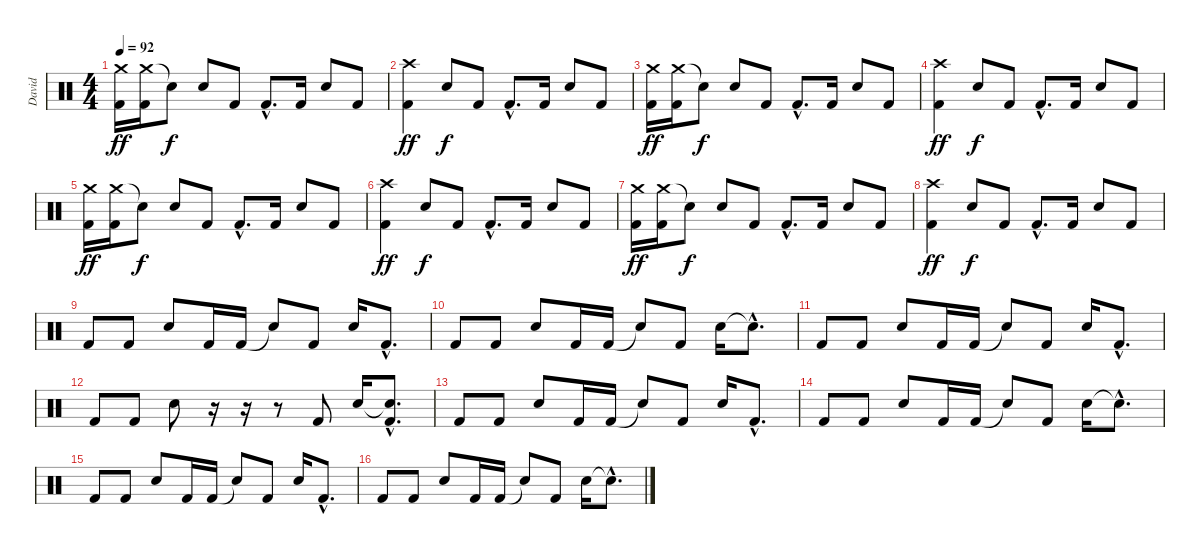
\track ("David" "David") {instrument percussion}
\staff {score}
\articulation defaults
\ts (4 4)
\tempo 92
\clef neutral
\ks c
("Crash medium (hit)" "Kick (hit) 2").16{dy ff} ("Crash medium (hit)" "Kick (hit) 2").16 "Snare (hit)"{t}.8{dy f} "Snare (hit) 2".8 "Kick (hit) 2".8 "Kick (hit) 2"{hac}.8{d} "Kick (hit) 2".16 "Snare (hit) 2".8 "Kick (hit) 2".8 |
("Crash high (hit)" "Kick (hit) 2").4{dy ff} "Snare (hit) 2".8{dy f} "Kick (hit) 2".8 "Kick (hit) 2"{hac}.8{d} "Kick (hit) 2".16 "Snare (hit) 2".8 "Kick (hit) 2".8 |
("Crash medium (hit)" "Kick (hit) 2").16{dy ff} ("Crash medium (hit)" "Kick (hit) 2").16 "Snare (hit)"{t}.8{dy f} "Snare (hit) 2".8 "Kick (hit) 2".8 "Kick (hit) 2"{hac}.8{d} "Kick (hit) 2".16 "Snare (hit) 2".8 "Kick (hit) 2".8 |
("Crash high (hit)" "Kick (hit) 2").4{dy ff} "Snare (hit) 2".8{dy f} "Kick (hit) 2".8 "Kick (hit) 2"{hac}.8{d} "Kick (hit) 2".16 "Snare (hit) 2".8 "Kick (hit) 2".8 |
("Crash medium (hit)" "Kick (hit) 2").16{dy ff} ("Crash medium (hit)" "Kick (hit) 2").16 "Snare (hit)"{t}.8{dy f} "Snare (hit) 2".8 "Kick (hit) 2".8 "Kick (hit) 2"{hac}.8{d} "Kick (hit) 2".16 "Snare (hit) 2".8 "Kick (hit) 2".8 |
("Crash high (hit)" "Kick (hit) 2").4{dy ff} "Snare (hit) 2".8{dy f} "Kick (hit) 2".8 "Kick (hit) 2"{hac}.8{d} "Kick (hit) 2".16 "Snare (hit) 2".8 "Kick (hit) 2".8 |
("Crash medium (hit)" "Kick (hit) 2").16{dy ff} ("Crash medium (hit)" "Kick (hit) 2").16 "Snare (hit)"{t}.8{dy f} "Snare (hit) 2".8 "Kick (hit) 2".8 "Kick (hit) 2"{hac}.8{d} "Kick (hit) 2".16 "Snare (hit) 2".8 "Kick (hit) 2".8 |
("Crash high (hit)" "Kick (hit) 2").4{dy ff} "Snare (hit) 2".8{dy f} "Kick (hit) 2".8 "Kick (hit) 2"{hac}.8{d} "Kick (hit) 2".16 "Snare (hit) 2".8 "Kick (hit) 2".8 |
"Kick (hit) 2".8 "Kick (hit) 2".8 "Snare (hit) 2".8 "Kick (hit) 2".16 "Kick (hit) 2".16 "Snare (hit)"{t}.8 "Kick (hit) 2".8 "Snare (hit) 2".16 "Kick (hit) 2"{hac}.8{d} |
"Kick (hit) 2".8 "Kick (hit) 2".8 "Snare (hit) 2".8 "Kick (hit) 2".16 "Kick (hit) 2".16 "Snare (hit)"{t}.8 "Kick (hit) 2".8 "Snare (hit) 2".16 "Snare (hit)"{hac t}.8{d} |
"Kick (hit) 2".8 "Kick (hit) 2".8 "Snare (hit) 2".8 "Kick (hit) 2".16 "Kick (hit) 2".16 "Snare (hit)"{t}.8 "Kick (hit) 2".8 "Snare (hit) 2".16 "Kick (hit) 2"{hac}.8{d} |
"Kick (hit) 2".8 "Kick (hit) 2".8 "Snare (hit) 2".8 r.16 r.16 r.8 "Kick (hit) 2".8 "Snare (hit) 2".16 ("Snare (hit)"{hac t} "Kick (hit) 2"{hac}).8{d} |
"Kick (hit) 2".8 "Kick (hit) 2".8 "Snare (hit) 2".8 "Kick (hit) 2".16 "Kick (hit) 2".16 "Snare (hit)"{t}.8 "Kick (hit) 2".8 "Snare (hit) 2".16 "Kick (hit) 2"{hac}.8{d} |
"Kick (hit) 2".8 "Kick (hit) 2".8 "Snare (hit) 2".8 "Kick (hit) 2".16 "Kick (hit) 2".16 "Snare (hit)"{t}.8 "Kick (hit) 2".8 "Snare (hit) 2".16 "Snare (hit)"{hac t}.8{d} |
"Kick (hit) 2".8 "Kick (hit) 2".8 "Snare (hit) 2".8 "Kick (hit) 2".16 "Kick (hit) 2".16 "Snare (hit)"{t}.8 "Kick (hit) 2".8 "Snare (hit) 2".16 "Kick (hit) 2"{hac}.8{d} |
"Kick (hit) 2".8 "Kick (hit) 2".8 "Snare (hit) 2".8 "Kick (hit) 2".16 "Kick (hit) 2".16 "Snare (hit)"{t}.8 "Kick (hit) 2".8 "Snare (hit) 2".16 "Snare (hit)"{hac t}.8{d}
